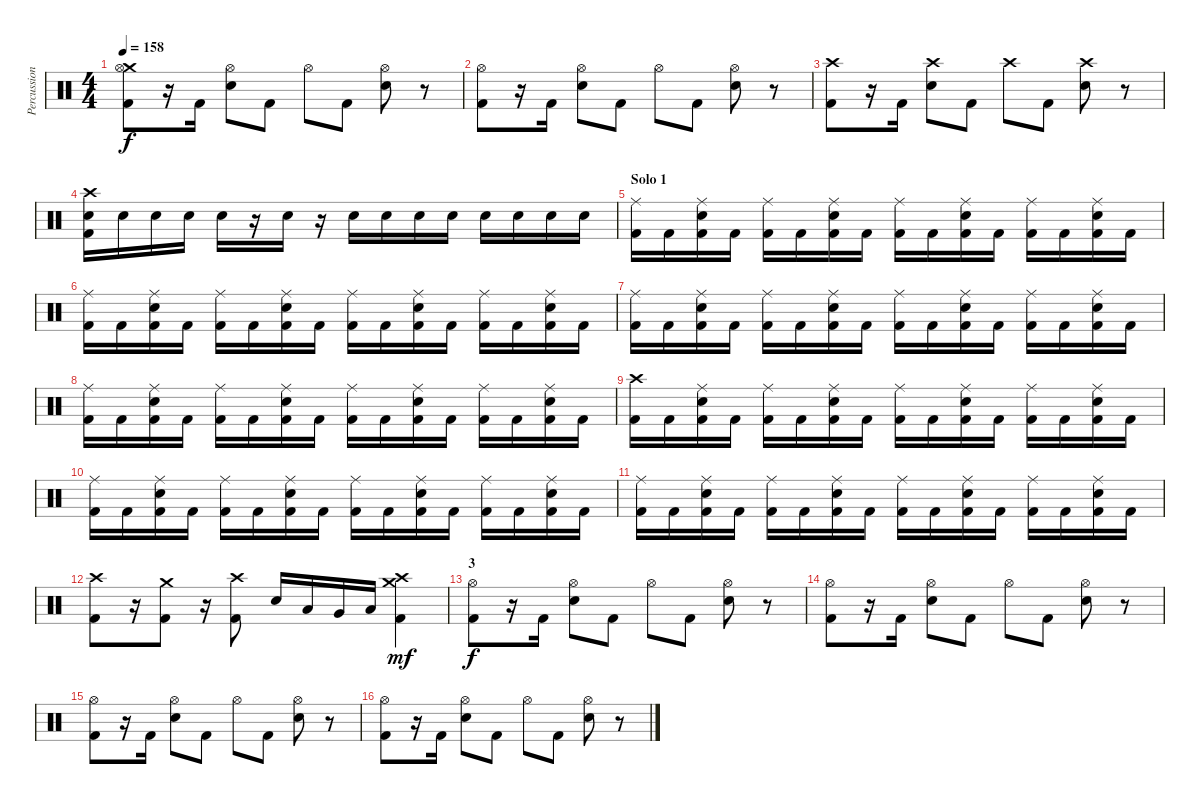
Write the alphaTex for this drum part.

\track ("Percussions" "Percussion") {instrument percussion}
\staff {score}
\articulation defaults
\ts (4 4)
\tempo 158
\clef neutral
\ks c
("Crash medium (hit)" "Hi-Hat (open)" "Kick (hit) 2").8{dy f} r.16 "Kick (hit) 2".16 ("Hi-Hat (open)" "Electric Snare (hit)").8 "Kick (hit) 2".8 "Hi-Hat (open)".8 "Kick (hit) 2".8 ("Hi-Hat (open)" "Electric Snare (hit)").8 r.8 |
("Hi-Hat (open)" "Kick (hit) 2").8 r.16 "Kick (hit) 2".16 ("Hi-Hat (open)" "Electric Snare (hit)").8 "Kick (hit) 2".8 "Hi-Hat (open)".8 "Kick (hit) 2".8 ("Hi-Hat (open)" "Electric Snare (hit)").8 r.8 |
("Crash high (hit)" "Kick (hit) 2").8 r.16 "Kick (hit) 2".16 ("Crash high (hit)" "Electric Snare (hit)").8 "Kick (hit) 2".8 "Crash high (hit)".8 "Kick (hit) 2".8 ("Crash high (hit)" "Electric Snare (hit)").8 r.8 |
("Crash high (hit)" "Electric Snare (hit)" "Kick (hit) 2").16 "Electric Snare (hit)".16 "Electric Snare (hit)".16 "Electric Snare (hit)".16 "Electric Snare (hit)".16 r.16 "Electric Snare (hit)".16 r.16 "Electric Snare (hit)".16 "Electric Snare (hit)".16 "Electric Snare (hit)".16 "Electric Snare (hit)".16 "Electric Snare (hit)".16 "Electric Snare (hit)".16 "Electric Snare (hit)".16 "Electric Snare (hit)".16 |
\section ("" "Solo 1")
("Ride (middle)" "Kick (hit) 2").16 "Kick (hit) 2".16 ("Ride (middle)" "Electric Snare (hit)" "Kick (hit) 2").16 "Kick (hit) 2".16 ("Ride (middle)" "Kick (hit) 2").16 "Kick (hit) 2".16 ("Ride (middle)" "Electric Snare (hit)" "Kick (hit) 2").16 "Kick (hit) 2".16 ("Ride (middle)" "Kick (hit) 2").16 "Kick (hit) 2".16 ("Ride (middle)" "Electric Snare (hit)" "Kick (hit) 2").16 "Kick (hit) 2".16 ("Ride (middle)" "Kick (hit) 2").16 "Kick (hit) 2".16 ("Ride (middle)" "Electric Snare (hit)" "Kick (hit) 2").16 "Kick (hit) 2".16 |
("Ride (middle)" "Kick (hit) 2").16 "Kick (hit) 2".16 ("Ride (middle)" "Electric Snare (hit)" "Kick (hit) 2").16 "Kick (hit) 2".16 ("Ride (middle)" "Kick (hit) 2").16 "Kick (hit) 2".16 ("Ride (middle)" "Electric Snare (hit)" "Kick (hit) 2").16 "Kick (hit) 2".16 ("Ride (middle)" "Kick (hit) 2").16 "Kick (hit) 2".16 ("Ride (middle)" "Electric Snare (hit)" "Kick (hit) 2").16 "Kick (hit) 2".16 ("Ride (middle)" "Kick (hit) 2").16 "Kick (hit) 2".16 ("Ride (middle)" "Electric Snare (hit)" "Kick (hit) 2").16 "Kick (hit) 2".16 |
("Ride (middle)" "Kick (hit) 2").16 "Kick (hit) 2".16 ("Ride (middle)" "Electric Snare (hit)" "Kick (hit) 2").16 "Kick (hit) 2".16 ("Ride (middle)" "Kick (hit) 2").16 "Kick (hit) 2".16 ("Ride (middle)" "Electric Snare (hit)" "Kick (hit) 2").16 "Kick (hit) 2".16 ("Ride (middle)" "Kick (hit) 2").16 "Kick (hit) 2".16 ("Ride (middle)" "Electric Snare (hit)" "Kick (hit) 2").16 "Kick (hit) 2".16 ("Ride (middle)" "Kick (hit) 2").16 "Kick (hit) 2".16 ("Ride (middle)" "Electric Snare (hit)" "Kick (hit) 2").16 "Kick (hit) 2".16 |
("Ride (middle)" "Kick (hit) 2").16 "Kick (hit) 2".16 ("Ride (middle)" "Electric Snare (hit)" "Kick (hit) 2").16 "Kick (hit) 2".16 ("Ride (middle)" "Kick (hit) 2").16 "Kick (hit) 2".16 ("Ride (middle)" "Electric Snare (hit)" "Kick (hit) 2").16 "Kick (hit) 2".16 ("Ride (middle)" "Kick (hit) 2").16 "Kick (hit) 2".16 ("Ride (middle)" "Electric Snare (hit)" "Kick (hit) 2").16 "Kick (hit) 2".16 ("Ride (middle)" "Kick (hit) 2").16 "Kick (hit) 2".16 ("Ride (middle)" "Electric Snare (hit)" "Kick (hit) 2").16 "Kick (hit) 2".16 |
("Crash high (hit)" "Kick (hit) 2").16 "Kick (hit) 2".16 ("Ride (middle)" "Electric Snare (hit)" "Kick (hit) 2").16 "Kick (hit) 2".16 ("Ride (middle)" "Kick (hit) 2").16 "Kick (hit) 2".16 ("Ride (middle)" "Electric Snare (hit)" "Kick (hit) 2").16 "Kick (hit) 2".16 ("Ride (middle)" "Kick (hit) 2").16 "Kick (hit) 2".16 ("Ride (middle)" "Electric Snare (hit)" "Kick (hit) 2").16 "Kick (hit) 2".16 ("Ride (middle)" "Kick (hit) 2").16 "Kick (hit) 2".16 ("Ride (middle)" "Electric Snare (hit)" "Kick (hit) 2").16 "Kick (hit) 2".16 |
("Ride (middle)" "Kick (hit) 2").16 "Kick (hit) 2".16 ("Ride (middle)" "Electric Snare (hit)" "Kick (hit) 2").16 "Kick (hit) 2".16 ("Ride (middle)" "Kick (hit) 2").16 "Kick (hit) 2".16 ("Ride (middle)" "Electric Snare (hit)" "Kick (hit) 2").16 "Kick (hit) 2".16 ("Ride (middle)" "Kick (hit) 2").16 "Kick (hit) 2".16 ("Ride (middle)" "Electric Snare (hit)" "Kick (hit) 2").16 "Kick (hit) 2".16 ("Ride (middle)" "Kick (hit) 2").16 "Kick (hit) 2".16 ("Ride (middle)" "Electric Snare (hit)" "Kick (hit) 2").16 "Kick (hit) 2".16 |
("Ride (middle)" "Kick (hit) 2").16 "Kick (hit) 2".16 ("Ride (middle)" "Electric Snare (hit)" "Kick (hit) 2").16 "Kick (hit) 2".16 ("Ride (middle)" "Kick (hit) 2").16 "Kick (hit) 2".16 ("Ride (middle)" "Electric Snare (hit)" "Kick (hit) 2").16 "Kick (hit) 2".16 ("Ride (middle)" "Kick (hit) 2").16 "Kick (hit) 2".16 ("Ride (middle)" "Electric Snare (hit)" "Kick (hit) 2").16 "Kick (hit) 2".16 ("Ride (middle)" "Kick (hit) 2").16 "Kick (hit) 2".16 ("Ride (middle)" "Electric Snare (hit)" "Kick (hit) 2").16 "Kick (hit) 2".16 |
("Crash high (hit)" "Kick (hit) 2").8 r.16 ("Crash medium (hit)" "Kick (hit) 2").8 r.16 ("Crash high (hit)" "Kick (hit) 2").8 "Electric Snare (hit)".16 "Low Tom (hit)".16 "Very Low Tom (hit)".16 "Low Floor Tom (hit)".16 ("Crash high (hit)" "Crash medium (hit)" "Kick (hit) 2").4{dy mf} |
\section ("" "3")
("Hi-Hat (open)" "Kick (hit) 2").8{dy f} r.16 "Kick (hit) 2".16 ("Hi-Hat (open)" "Electric Snare (hit)").8 "Kick (hit) 2".8 "Hi-Hat (open)".8 "Kick (hit) 2".8 ("Hi-Hat (open)" "Electric Snare (hit)").8 r.8 |
("Hi-Hat (open)" "Kick (hit) 2").8 r.16 "Kick (hit) 2".16 ("Hi-Hat (open)" "Electric Snare (hit)").8 "Kick (hit) 2".8 "Hi-Hat (open)".8 "Kick (hit) 2".8 ("Hi-Hat (open)" "Electric Snare (hit)").8 r.8 |
("Hi-Hat (open)" "Kick (hit) 2").8 r.16 "Kick (hit) 2".16 ("Hi-Hat (open)" "Electric Snare (hit)").8 "Kick (hit) 2".8 "Hi-Hat (open)".8 "Kick (hit) 2".8 ("Hi-Hat (open)" "Electric Snare (hit)").8 r.8 |
("Hi-Hat (open)" "Kick (hit) 2").8 r.16 "Kick (hit) 2".16 ("Hi-Hat (open)" "Electric Snare (hit)").8 "Kick (hit) 2".8 "Hi-Hat (open)".8 "Kick (hit) 2".8 ("Hi-Hat (open)" "Electric Snare (hit)").8 r.8
